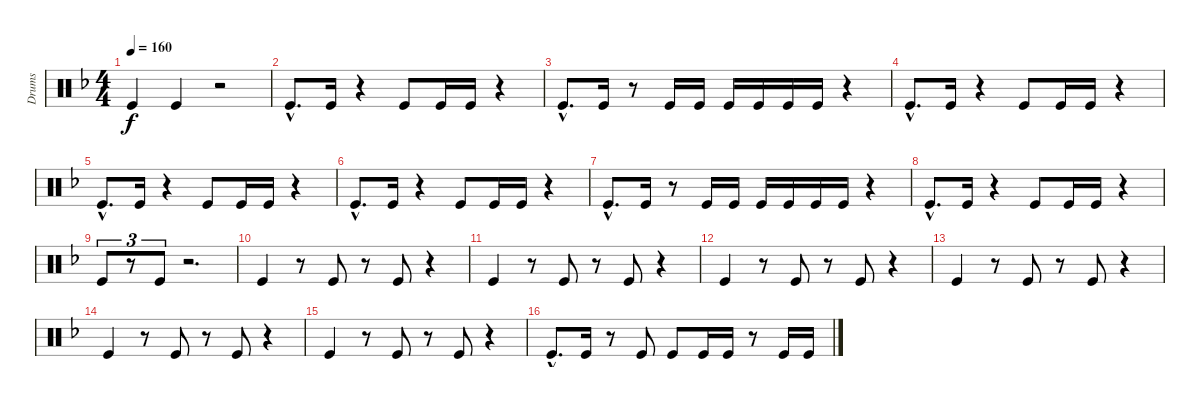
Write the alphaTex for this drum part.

\track ("Drums" "Drums") {instrument percussion}
\staff {score}
\articulation defaults
\ts (4 4)
\tempo 160
\clef neutral
\ks f "Kick (hit)".4{dy f} "Kick (hit)".4
r.2 |
"Kick (hit)"{hac}.8{d} "Kick (hit)".16 r.4 "Kick (hit)".8 "Kick (hit)".16 "Kick (hit)".16 r.4 |
"Kick (hit)"{hac}.8{d} "Kick (hit)".16 r.8 "Kick (hit)".16 "Kick (hit)".16 "Kick (hit)".16 "Kick (hit)".16 "Kick (hit)".16 "Kick (hit)".16 r.4 |
"Kick (hit)"{hac}.8{d} "Kick (hit)".16 r.4 "Kick (hit)".8 "Kick (hit)".16 "Kick (hit)".16 r.4 |
"Kick (hit)"{hac}.8{d} "Kick (hit)".16 r.4 "Kick (hit)".8 "Kick (hit)".16 "Kick (hit)".16 r.4 |
"Kick (hit)"{hac}.8{d} "Kick (hit)".16 r.4 "Kick (hit)".8 "Kick (hit)".16 "Kick (hit)".16 r.4 |
"Kick (hit)"{hac}.8{d} "Kick (hit)".16 r.8 "Kick (hit)".16 "Kick (hit)".16 "Kick (hit)".16 "Kick (hit)".16 "Kick (hit)".16 "Kick (hit)".16 r.4 |
"Kick (hit)"{hac}.8{d} "Kick (hit)".16 r.4 "Kick (hit)".8 "Kick (hit)".16 "Kick (hit)".16 r.4 |
"Kick (hit)".8{tu (3 2)} r.8{tu (3 2)} "Kick (hit)".8{tu (3 2)} r.2{d} |
"Kick (hit)".4 r.8 "Kick (hit)".8 r.8 "Kick (hit)".8 r.4 |
"Kick (hit)".4 r.8 "Kick (hit)".8 r.8 "Kick (hit)".8 r.4 |
"Kick (hit)".4 r.8 "Kick (hit)".8 r.8 "Kick (hit)".8 r.4 |
"Kick (hit)".4 r.8 "Kick (hit)".8 r.8 "Kick (hit)".8 r.4 |
"Kick (hit)".4 r.8 "Kick (hit)".8 r.8 "Kick (hit)".8 r.4 |
"Kick (hit)".4 r.8 "Kick (hit)".8 r.8 "Kick (hit)".8 r.4 |
"Kick (hit)"{hac}.8{d} "Kick (hit)".16 r.8 "Kick (hit)".8 "Kick (hit)".8 "Kick (hit)".16 "Kick (hit)".16 r.8 "Kick (hit)".16 "Kick (hit)".16
